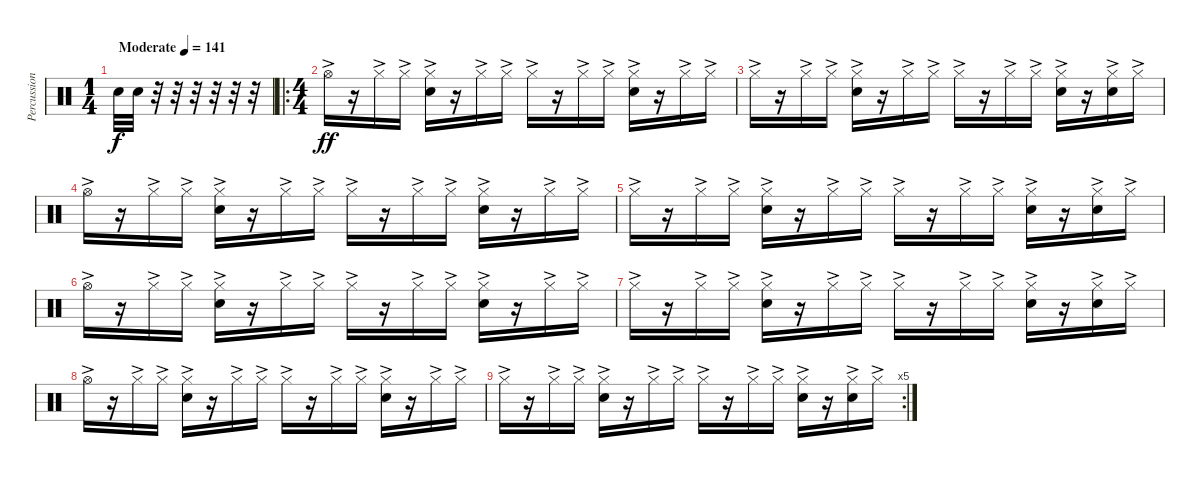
\track ("Percussion" "Percussion") {instrument percussion}
\staff {score}
\articulation defaults
\ts (1 4)
\tempo (141 "Moderate")
\clef neutral
\ks c "Snare (hit) 2".32{dy f} "Snare (hit) 2".32
r.32 r.32 r.32 r.32 r.32 r.32 |
\ro
\ts (4 4)
"Hi-Hat (open)"{ac}.16{dy ff} r.16 "Hi-Hat (closed)"{ac}.16 "Hi-Hat (closed)"{ac}.16 ("Hi-Hat (closed)"{ac} "Snare (hit) 2"{ac}).16 r.16 "Hi-Hat (closed)"{ac}.16 "Hi-Hat (closed)"{ac}.16 "Hi-Hat (closed)"{ac}.16 r.16 "Hi-Hat (closed)"{ac}.16 "Hi-Hat (closed)"{ac}.16 ("Hi-Hat (closed)"{ac} "Snare (hit) 2"{ac}).16 r.16 "Hi-Hat (closed)"{ac}.16 "Hi-Hat (closed)"{ac}.16 |
"Hi-Hat (closed)"{ac}.16 r.16 "Hi-Hat (closed)"{ac}.16 "Hi-Hat (closed)"{ac}.16 ("Hi-Hat (closed)"{ac} "Snare (hit) 2"{ac}).16 r.16 "Hi-Hat (closed)"{ac}.16 "Hi-Hat (closed)"{ac}.16 "Hi-Hat (closed)"{ac}.16 r.16 "Hi-Hat (closed)"{ac}.16 "Hi-Hat (closed)"{ac}.16 ("Hi-Hat (closed)"{ac} "Snare (hit) 2"{ac}).16 r.16 ("Hi-Hat (closed)"{ac} "Snare (hit) 2"{ac}).16 "Hi-Hat (closed)"{ac}.16 |
"Hi-Hat (open)"{ac}.16 r.16 "Hi-Hat (closed)"{ac}.16 "Hi-Hat (closed)"{ac}.16 ("Hi-Hat (closed)"{ac} "Snare (hit) 2"{ac}).16 r.16 "Hi-Hat (closed)"{ac}.16 "Hi-Hat (closed)"{ac}.16 "Hi-Hat (closed)"{ac}.16 r.16 "Hi-Hat (closed)"{ac}.16 "Hi-Hat (closed)"{ac}.16 ("Hi-Hat (closed)"{ac} "Snare (hit) 2"{ac}).16 r.16 "Hi-Hat (closed)"{ac}.16 "Hi-Hat (closed)"{ac}.16 |
"Hi-Hat (closed)"{ac}.16 r.16 "Hi-Hat (closed)"{ac}.16 "Hi-Hat (closed)"{ac}.16 ("Hi-Hat (closed)"{ac} "Snare (hit) 2"{ac}).16 r.16 "Hi-Hat (closed)"{ac}.16 "Hi-Hat (closed)"{ac}.16 "Hi-Hat (closed)"{ac}.16 r.16 "Hi-Hat (closed)"{ac}.16 "Hi-Hat (closed)"{ac}.16 ("Hi-Hat (closed)"{ac} "Snare (hit) 2"{ac}).16 r.16 ("Hi-Hat (closed)"{ac} "Snare (hit) 2"{ac}).16 "Hi-Hat (closed)"{ac}.16 |
"Hi-Hat (open)"{ac}.16 r.16 "Hi-Hat (closed)"{ac}.16 "Hi-Hat (closed)"{ac}.16 ("Hi-Hat (closed)"{ac} "Snare (hit) 2"{ac}).16 r.16 "Hi-Hat (closed)"{ac}.16 "Hi-Hat (closed)"{ac}.16 "Hi-Hat (closed)"{ac}.16 r.16 "Hi-Hat (closed)"{ac}.16 "Hi-Hat (closed)"{ac}.16 ("Hi-Hat (closed)"{ac} "Snare (hit) 2"{ac}).16 r.16 "Hi-Hat (closed)"{ac}.16 "Hi-Hat (closed)"{ac}.16 |
"Hi-Hat (closed)"{ac}.16 r.16 "Hi-Hat (closed)"{ac}.16 "Hi-Hat (closed)"{ac}.16 ("Hi-Hat (closed)"{ac} "Snare (hit) 2"{ac}).16 r.16 "Hi-Hat (closed)"{ac}.16 "Hi-Hat (closed)"{ac}.16 "Hi-Hat (closed)"{ac}.16 r.16 "Hi-Hat (closed)"{ac}.16 "Hi-Hat (closed)"{ac}.16 ("Hi-Hat (closed)"{ac} "Snare (hit) 2"{ac}).16 r.16 ("Hi-Hat (closed)"{ac} "Snare (hit) 2"{ac}).16 "Hi-Hat (closed)"{ac}.16 |
"Hi-Hat (open)"{ac}.16 r.16 "Hi-Hat (closed)"{ac}.16 "Hi-Hat (closed)"{ac}.16 ("Hi-Hat (closed)"{ac} "Snare (hit) 2"{ac}).16 r.16 "Hi-Hat (closed)"{ac}.16 "Hi-Hat (closed)"{ac}.16 "Hi-Hat (closed)"{ac}.16 r.16 "Hi-Hat (closed)"{ac}.16 "Hi-Hat (closed)"{ac}.16 ("Hi-Hat (closed)"{ac} "Snare (hit) 2"{ac}).16 r.16 "Hi-Hat (closed)"{ac}.16 "Hi-Hat (closed)"{ac}.16 |
\rc 5 "Hi-Hat (closed)"{ac}.16
r.16 "Hi-Hat (closed)"{ac}.16 "Hi-Hat (closed)"{ac}.16 ("Hi-Hat (closed)"{ac} "Snare (hit) 2"{ac}).16 r.16 "Hi-Hat (closed)"{ac}.16 "Hi-Hat (closed)"{ac}.16 "Hi-Hat (closed)"{ac}.16 r.16 "Hi-Hat (closed)"{ac}.16 "Hi-Hat (closed)"{ac}.16 ("Hi-Hat (closed)"{ac} "Snare (hit) 2"{ac}).16 r.16 ("Hi-Hat (closed)"{ac} "Snare (hit) 2"{ac}).16 "Hi-Hat (closed)"{ac}.16
